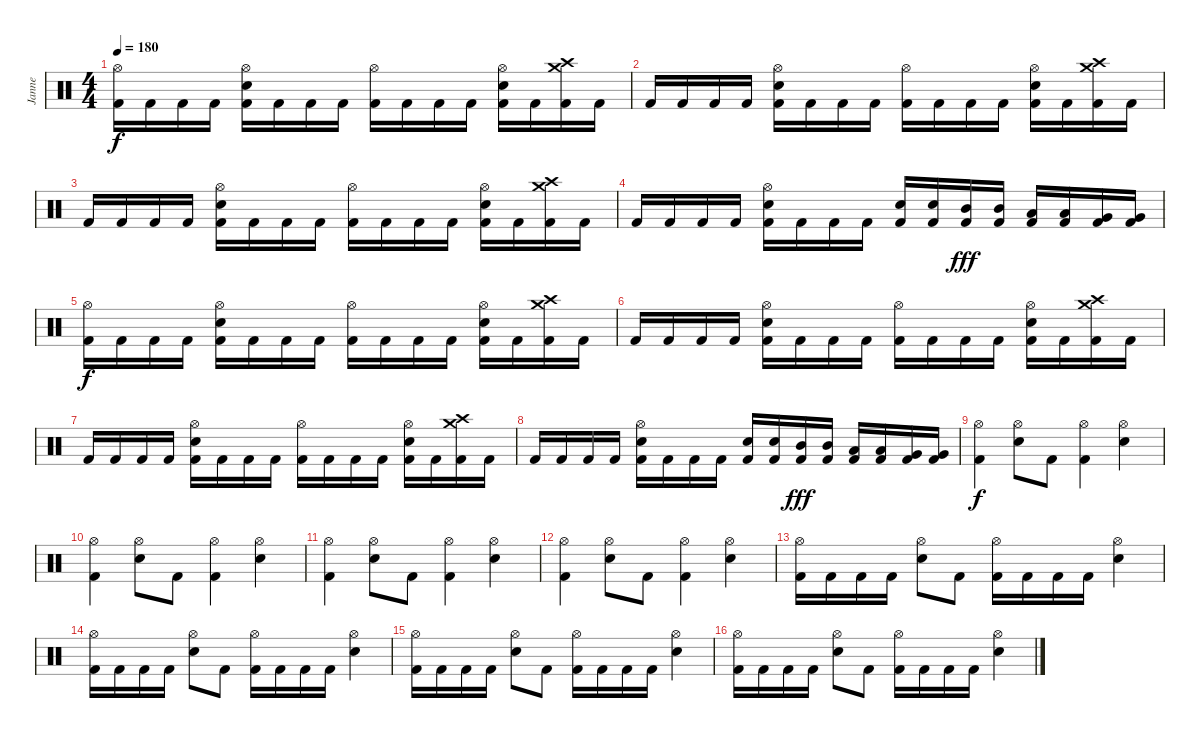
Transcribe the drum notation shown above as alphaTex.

\track ("Janne" "Janne") {instrument percussion}
\staff {score}
\articulation defaults
\ts (4 4)
\tempo 180
\clef neutral
\ks c
("Hi-Hat (open)" "Kick (hit) 2").16{dy f} "Kick (hit) 2".16 "Kick (hit) 2".16 "Kick (hit) 2".16 ("Hi-Hat (open)" "Electric Snare (hit)" "Kick (hit) 2").16 "Kick (hit) 2".16 "Kick (hit) 2".16 "Kick (hit) 2".16 ("Hi-Hat (open)" "Kick (hit) 2").16 "Kick (hit) 2".16 "Kick (hit) 2".16 "Kick (hit) 2".16 ("Hi-Hat (open)" "Electric Snare (hit)" "Kick (hit) 2").16 "Kick (hit) 2".16 ("Crash medium (hit)" "Crash high (hit)" "Kick (hit) 2").16 "Kick (hit) 2".16 |
"Kick (hit) 2".16 "Kick (hit) 2".16 "Kick (hit) 2".16 "Kick (hit) 2".16 ("Hi-Hat (open)" "Electric Snare (hit)" "Kick (hit) 2").16 "Kick (hit) 2".16 "Kick (hit) 2".16 "Kick (hit) 2".16 ("Hi-Hat (open)" "Kick (hit) 2").16 "Kick (hit) 2".16 "Kick (hit) 2".16 "Kick (hit) 2".16 ("Hi-Hat (open)" "Electric Snare (hit)" "Kick (hit) 2").16 "Kick (hit) 2".16 ("Crash medium (hit)" "Crash high (hit)" "Kick (hit) 2").16 "Kick (hit) 2".16 |
"Kick (hit) 2".16 "Kick (hit) 2".16 "Kick (hit) 2".16 "Kick (hit) 2".16 ("Hi-Hat (open)" "Electric Snare (hit)" "Kick (hit) 2").16 "Kick (hit) 2".16 "Kick (hit) 2".16 "Kick (hit) 2".16 ("Hi-Hat (open)" "Kick (hit) 2").16 "Kick (hit) 2".16 "Kick (hit) 2".16 "Kick (hit) 2".16 ("Hi-Hat (open)" "Electric Snare (hit)" "Kick (hit) 2").16 "Kick (hit) 2".16 ("Crash medium (hit)" "Crash high (hit)" "Kick (hit) 2").16 "Kick (hit) 2".16 |
"Kick (hit) 2".16 "Kick (hit) 2".16 "Kick (hit) 2".16 "Kick (hit) 2".16 ("Hi-Hat (open)" "Electric Snare (hit)" "Kick (hit) 2").16 "Kick (hit) 2".16 "Kick (hit) 2".16 "Kick (hit) 2".16 ("Electric Snare (hit)" "Kick (hit) 2").16 ("Electric Snare (hit)" "Kick (hit) 2").16 ("Mid Tom (hit)" "Kick (hit) 2").16{dy fff} ("Mid Tom (hit)" "Kick (hit) 2").16 ("Low Tom (hit)" "Kick (hit) 2").16 ("Low Tom (hit)" "Kick (hit) 2").16 ("Very Low Tom (hit)" "Kick (hit) 2").16 ("Very Low Tom (hit)" "Kick (hit) 2").16 |
("Hi-Hat (open)" "Kick (hit) 2").16{dy f} "Kick (hit) 2".16 "Kick (hit) 2".16 "Kick (hit) 2".16 ("Hi-Hat (open)" "Electric Snare (hit)" "Kick (hit) 2").16 "Kick (hit) 2".16 "Kick (hit) 2".16 "Kick (hit) 2".16 ("Hi-Hat (open)" "Kick (hit) 2").16 "Kick (hit) 2".16 "Kick (hit) 2".16 "Kick (hit) 2".16 ("Hi-Hat (open)" "Electric Snare (hit)" "Kick (hit) 2").16 "Kick (hit) 2".16 ("Crash medium (hit)" "Crash high (hit)" "Kick (hit) 2").16 "Kick (hit) 2".16 |
"Kick (hit) 2".16 "Kick (hit) 2".16 "Kick (hit) 2".16 "Kick (hit) 2".16 ("Hi-Hat (open)" "Electric Snare (hit)" "Kick (hit) 2").16 "Kick (hit) 2".16 "Kick (hit) 2".16 "Kick (hit) 2".16 ("Hi-Hat (open)" "Kick (hit) 2").16 "Kick (hit) 2".16 "Kick (hit) 2".16 "Kick (hit) 2".16 ("Hi-Hat (open)" "Electric Snare (hit)" "Kick (hit) 2").16 "Kick (hit) 2".16 ("Crash medium (hit)" "Crash high (hit)" "Kick (hit) 2").16 "Kick (hit) 2".16 |
"Kick (hit) 2".16 "Kick (hit) 2".16 "Kick (hit) 2".16 "Kick (hit) 2".16 ("Hi-Hat (open)" "Electric Snare (hit)" "Kick (hit) 2").16 "Kick (hit) 2".16 "Kick (hit) 2".16 "Kick (hit) 2".16 ("Hi-Hat (open)" "Kick (hit) 2").16 "Kick (hit) 2".16 "Kick (hit) 2".16 "Kick (hit) 2".16 ("Hi-Hat (open)" "Electric Snare (hit)" "Kick (hit) 2").16 "Kick (hit) 2".16 ("Crash medium (hit)" "Crash high (hit)" "Kick (hit) 2").16 "Kick (hit) 2".16 |
"Kick (hit) 2".16 "Kick (hit) 2".16 "Kick (hit) 2".16 "Kick (hit) 2".16 ("Hi-Hat (open)" "Electric Snare (hit)" "Kick (hit) 2").16 "Kick (hit) 2".16 "Kick (hit) 2".16 "Kick (hit) 2".16 ("Electric Snare (hit)" "Kick (hit) 2").16 ("Electric Snare (hit)" "Kick (hit) 2").16 ("Mid Tom (hit)" "Kick (hit) 2").16{dy fff} ("Mid Tom (hit)" "Kick (hit) 2").16 ("Low Tom (hit)" "Kick (hit) 2").16 ("Low Tom (hit)" "Kick (hit) 2").16 ("Very Low Tom (hit)" "Kick (hit) 2").16 ("Very Low Tom (hit)" "Kick (hit) 2").16 |
("Hi-Hat (open)" "Kick (hit) 2").4{dy f} ("Hi-Hat (open)" "Electric Snare (hit)").8 "Kick (hit) 2".8 ("Hi-Hat (open)" "Kick (hit) 2").4 ("Hi-Hat (open)" "Electric Snare (hit)").4 |
("Hi-Hat (open)" "Kick (hit) 2").4 ("Hi-Hat (open)" "Electric Snare (hit)").8 "Kick (hit) 2".8 ("Hi-Hat (open)" "Kick (hit) 2").4 ("Hi-Hat (open)" "Electric Snare (hit)").4 |
("Hi-Hat (open)" "Kick (hit) 2").4 ("Hi-Hat (open)" "Electric Snare (hit)").8 "Kick (hit) 2".8 ("Hi-Hat (open)" "Kick (hit) 2").4 ("Hi-Hat (open)" "Electric Snare (hit)").4 |
("Hi-Hat (open)" "Kick (hit) 2").4 ("Hi-Hat (open)" "Electric Snare (hit)").8 "Kick (hit) 2".8 ("Hi-Hat (open)" "Kick (hit) 2").4 ("Hi-Hat (open)" "Electric Snare (hit)").4 |
("Hi-Hat (open)" "Kick (hit) 2").16 "Kick (hit) 2".16 "Kick (hit) 2".16 "Kick (hit) 2".16 ("Hi-Hat (open)" "Electric Snare (hit)").8 "Kick (hit) 2".8 ("Hi-Hat (open)" "Kick (hit) 2").16 "Kick (hit) 2".16 "Kick (hit) 2".16 "Kick (hit) 2".16 ("Hi-Hat (open)" "Electric Snare (hit)").4 |
("Hi-Hat (open)" "Kick (hit) 2").16 "Kick (hit) 2".16 "Kick (hit) 2".16 "Kick (hit) 2".16 ("Hi-Hat (open)" "Electric Snare (hit)").8 "Kick (hit) 2".8 ("Hi-Hat (open)" "Kick (hit) 2").16 "Kick (hit) 2".16 "Kick (hit) 2".16 "Kick (hit) 2".16 ("Hi-Hat (open)" "Electric Snare (hit)").4 |
("Hi-Hat (open)" "Kick (hit) 2").16 "Kick (hit) 2".16 "Kick (hit) 2".16 "Kick (hit) 2".16 ("Hi-Hat (open)" "Electric Snare (hit)").8 "Kick (hit) 2".8 ("Hi-Hat (open)" "Kick (hit) 2").16 "Kick (hit) 2".16 "Kick (hit) 2".16 "Kick (hit) 2".16 ("Hi-Hat (open)" "Electric Snare (hit)").4 |
("Hi-Hat (open)" "Kick (hit) 2").16 "Kick (hit) 2".16 "Kick (hit) 2".16 "Kick (hit) 2".16 ("Hi-Hat (open)" "Electric Snare (hit)").8 "Kick (hit) 2".8 ("Hi-Hat (open)" "Kick (hit) 2").16 "Kick (hit) 2".16 "Kick (hit) 2".16 "Kick (hit) 2".16 ("Hi-Hat (open)" "Electric Snare (hit)").4
